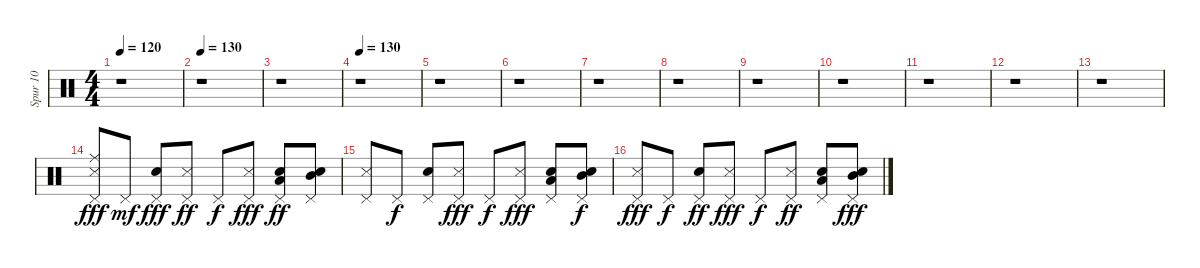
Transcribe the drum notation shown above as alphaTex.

\track ("Spur 10" "Spur 10") {instrument percussion}
\staff {score}
\articulation defaults
\ts (4 4)
\tempo 120
\clef neutral
\ks c
r.1{dy fff} |
\tempo 130
r.1 |
r.1 |
\tempo 130
r.1 |
r.1 |
r.1 |
r.1 |
r.1 |
r.1 |
r.1 |
r.1 |
r.1 |
r.1 |
("Ride (middle)" "Pedal Hi-Hat (hit)" "Metronome (hit)").8 "Pedal Hi-Hat (hit)".8{dy mf} ("Pedal Hi-Hat (hit)" "Snare (hit) 2").8{dy fff} ("Metronome (hit)" "Pedal Hi-Hat (hit)").8{dy ff} "Pedal Hi-Hat (hit)".8{dy f} ("Metronome (hit)" "Pedal Hi-Hat (hit)").8{dy fff} ("Snare (hit) 2" "Low Tom (hit)" "Pedal Hi-Hat (hit)").8{dy ff} ("Snare (hit) 2" "Mid Tom (hit)" "Pedal Hi-Hat (hit)").8 |
("Metronome (hit)" "Pedal Hi-Hat (hit)").8 "Pedal Hi-Hat (hit)".8{dy f} ("Snare (hit) 2" "Pedal Hi-Hat (hit)").8 ("Metronome (hit)" "Pedal Hi-Hat (hit)").8{dy fff} "Pedal Hi-Hat (hit)".8{dy f} ("Metronome (hit)" "Pedal Hi-Hat (hit)").8{dy fff} ("Snare (hit) 2" "Low Tom (hit)" "Pedal Hi-Hat (hit)").8 ("Snare (hit) 2" "Mid Tom (hit)" "Pedal Hi-Hat (hit)").8{dy f} |
("Pedal Hi-Hat (hit)" "Metronome (hit)").8{dy fff} "Pedal Hi-Hat (hit)".8{dy f} ("Snare (hit) 2" "Pedal Hi-Hat (hit)").8{dy ff} ("Metronome (hit)" "Pedal Hi-Hat (hit)").8{dy fff} "Pedal Hi-Hat (hit)".8{dy f} ("Metronome (hit)" "Pedal Hi-Hat (hit)").8{dy ff} ("Low Tom (hit)" "Snare (hit) 2" "Pedal Hi-Hat (hit)").8 ("Mid Tom (hit)" "Snare (hit) 2" "Pedal Hi-Hat (hit)").8{dy fff}
